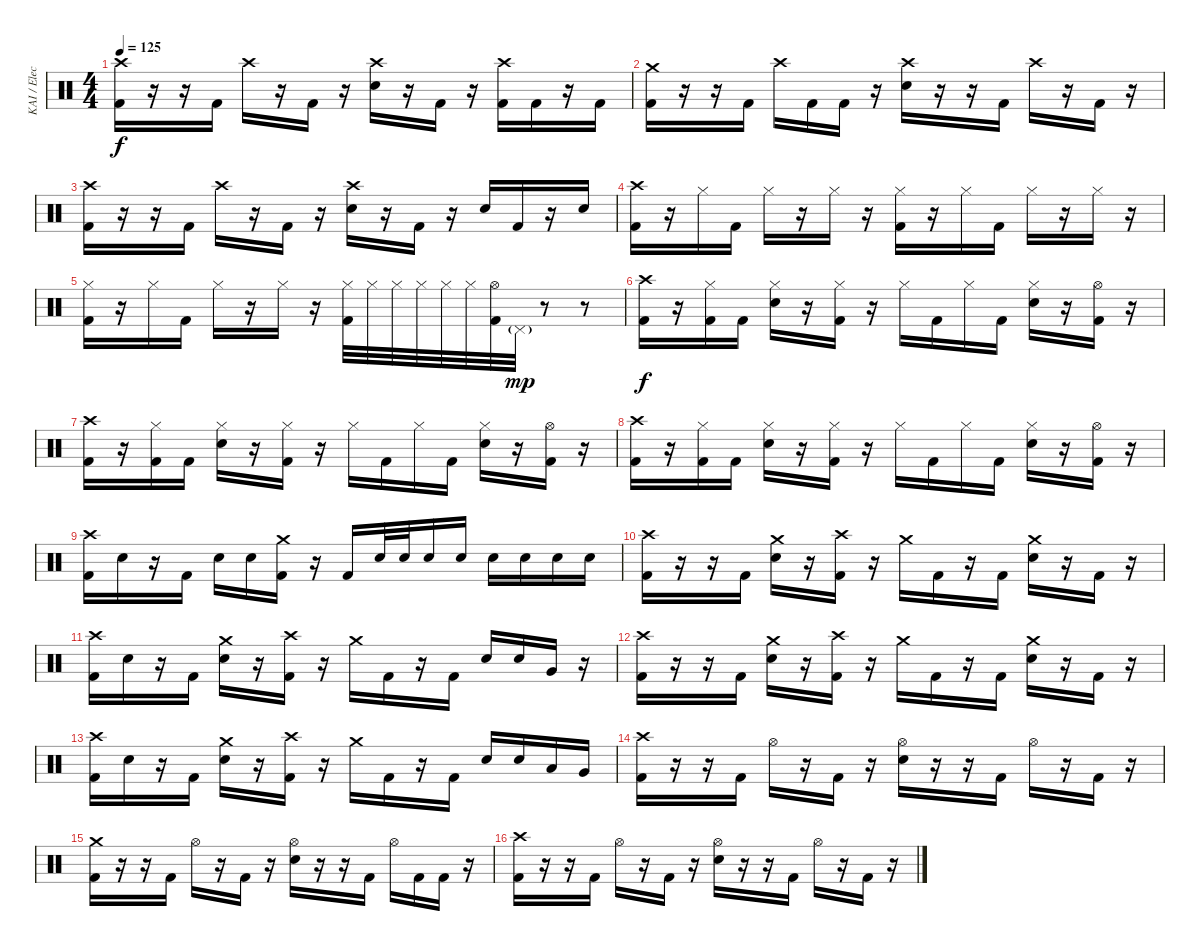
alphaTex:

\track ("KAI / Elect. Drums" "KAI / Elec") {instrument percussion}
\staff {score}
\articulation defaults
\ts (4 4)
\tempo 125
\clef neutral
\ks c
("Crash high (hit)" "Kick (hit) 2").16{dy f} r.16 r.16 "Kick (hit) 2".16 "Crash high (hit)".16 r.16 "Kick (hit) 2".16 r.16 ("Crash high (hit)" "Electric Snare (hit)").16 r.16 "Kick (hit) 2".16 r.16 ("Crash high (hit)" "Kick (hit) 2").16 "Kick (hit) 2".16 r.16 "Kick (hit) 2".16 |
("Crash medium (hit)" "Kick (hit) 2").16 r.16 r.16 "Kick (hit) 2".16 "Crash high (hit)".16 "Kick (hit) 2".16 "Kick (hit) 2".16 r.16 ("Crash high (hit)" "Electric Snare (hit)").16 r.16 r.16 "Kick (hit) 2".16 "Crash high (hit)".16 r.16 "Kick (hit) 2".16 r.16 |
("Crash high (hit)" "Kick (hit) 2").16 r.16 r.16 "Kick (hit) 2".16 "Crash high (hit)".16 r.16 "Kick (hit) 2".16 r.16 ("Crash high (hit)" "Electric Snare (hit)").16 r.16 "Kick (hit) 2".16 r.16 "Electric Snare (hit)".16 "Kick (hit) 2".16 r.16 "Electric Snare (hit)".16 |
("Crash high (hit)" "Kick (hit) 2").16 r.16 "Hi-Hat (closed)".16 "Kick (hit) 2".16 "Hi-Hat (closed)".16 r.16 "Hi-Hat (closed)".16 r.16 ("Hi-Hat (closed)" "Kick (hit) 2").16 r.16 "Hi-Hat (closed)".16 "Kick (hit) 2".16 "Hi-Hat (closed)".16 r.16 "Hi-Hat (closed)".16 r.16 |
("Hi-Hat (closed)" "Kick (hit) 2").16 r.16 "Hi-Hat (closed)".16 "Kick (hit) 2".16 "Hi-Hat (closed)".16 r.16 "Hi-Hat (closed)".16 r.16 ("Hi-Hat (closed)" "Kick (hit) 2").32 "Hi-Hat (closed)".32 "Hi-Hat (closed)".32 "Hi-Hat (closed)".32 "Hi-Hat (closed)".32 "Hi-Hat (closed)".32 ("Hi-Hat (open)" "Kick (hit) 2").32 "Pedal Hi-Hat (hit)"{g}.32{dy mp} r.8 r.8 |
("Crash high (hit)" "Kick (hit) 2").16{dy f} r.16 ("Hi-Hat (closed)" "Kick (hit) 2").16 "Kick (hit) 2".16 ("Hi-Hat (closed)" "Electric Snare (hit)").16 r.16 ("Hi-Hat (closed)" "Kick (hit) 2").16 r.16 "Hi-Hat (closed)".16 "Kick (hit) 2".16 "Hi-Hat (closed)".16 "Kick (hit) 2".16 ("Hi-Hat (closed)" "Electric Snare (hit)").16 r.16 ("Hi-Hat (open)" "Kick (hit) 2").16 r.16 |
("Crash high (hit)" "Kick (hit) 2").16 r.16 ("Hi-Hat (closed)" "Kick (hit) 2").16 "Kick (hit) 2".16 ("Hi-Hat (closed)" "Electric Snare (hit)").16 r.16 ("Hi-Hat (closed)" "Kick (hit) 2").16 r.16 "Hi-Hat (closed)".16 "Kick (hit) 2".16 "Hi-Hat (closed)".16 "Kick (hit) 2".16 ("Hi-Hat (closed)" "Electric Snare (hit)").16 r.16 ("Hi-Hat (open)" "Kick (hit) 2").16 r.16 |
("Crash high (hit)" "Kick (hit) 2").16 r.16 ("Hi-Hat (closed)" "Kick (hit) 2").16 "Kick (hit) 2".16 ("Hi-Hat (closed)" "Electric Snare (hit)").16 r.16 ("Hi-Hat (closed)" "Kick (hit) 2").16 r.16 "Hi-Hat (closed)".16 "Kick (hit) 2".16 "Hi-Hat (closed)".16 "Kick (hit) 2".16 ("Hi-Hat (closed)" "Electric Snare (hit)").16 r.16 ("Hi-Hat (open)" "Kick (hit) 2").16 r.16 |
("Crash high (hit)" "Kick (hit) 2").16 "Electric Snare (hit)".16 r.16 "Kick (hit) 2".16 "Electric Snare (hit)".16 "Electric Snare (hit)".16 ("Crash medium (hit)" "Kick (hit) 2").16 r.16 "Kick (hit) 2".16 "Electric Snare (hit)".32 "Electric Snare (hit)".32 "Electric Snare (hit)".16 "Electric Snare (hit)".16 "Electric Snare (hit)".16 "Electric Snare (hit)".16 "Electric Snare (hit)".16 "Electric Snare (hit)".16 |
("Crash high (hit)" "Kick (hit) 2").16 r.16 r.16 "Kick (hit) 2".16 ("Crash medium (hit)" "Electric Snare (hit)").16 r.16 ("Crash high (hit)" "Kick (hit) 2").16 r.16 "Crash medium (hit)".16 "Kick (hit) 2".16 r.16 "Kick (hit) 2".16 ("Crash medium (hit)" "Electric Snare (hit)").16 r.16 "Kick (hit) 2".16 r.16 |
("Crash high (hit)" "Kick (hit) 2").16 "Electric Snare (hit)".16 r.16 "Kick (hit) 2".16 ("Crash medium (hit)" "Electric Snare (hit)").16 r.16 ("Crash high (hit)" "Kick (hit) 2").16 r.16 "Crash medium (hit)".16 "Kick (hit) 2".16 r.16 "Kick (hit) 2".16 "Electric Snare (hit)".16 "Electric Snare (hit)".16 "Very Low Tom (hit)".16 r.16 |
("Crash high (hit)" "Kick (hit) 2").16 r.16 r.16 "Kick (hit) 2".16 ("Crash medium (hit)" "Electric Snare (hit)").16 r.16 ("Crash high (hit)" "Kick (hit) 2").16 r.16 "Crash medium (hit)".16 "Kick (hit) 2".16 r.16 "Kick (hit) 2".16 ("Crash medium (hit)" "Electric Snare (hit)").16 r.16 "Kick (hit) 2".16 r.16 |
("Crash high (hit)" "Kick (hit) 2").16 "Electric Snare (hit)".16 r.16 "Kick (hit) 2".16 ("Crash medium (hit)" "Electric Snare (hit)").16 r.16 ("Crash high (hit)" "Kick (hit) 2").16 r.16 "Crash medium (hit)".16 "Kick (hit) 2".16 r.16 "Kick (hit) 2".16 "Electric Snare (hit)".16 "Electric Snare (hit)".16 "Low Tom (hit)".16 "Very Low Tom (hit)".16 |
("Crash high (hit)" "Kick (hit) 2").16 r.16 r.16 "Kick (hit) 2".16 "Hi-Hat (open)".16 r.16 "Kick (hit) 2".16 r.16 ("Hi-Hat (open)" "Electric Snare (hit)").16 r.16 r.16 "Kick (hit) 2".16 "Hi-Hat (open)".16 r.16 "Kick (hit) 2".16 r.16 |
("Crash medium (hit)" "Kick (hit) 2").16 r.16 r.16 "Kick (hit) 2".16 "Hi-Hat (open)".16 r.16 "Kick (hit) 2".16 r.16 ("Hi-Hat (open)" "Electric Snare (hit)").16 r.16 r.16 "Kick (hit) 2".16 "Hi-Hat (open)".16 "Kick (hit) 2".16 "Kick (hit) 2".16 r.16 |
("Crash high (hit)" "Kick (hit) 2").16 r.16 r.16 "Kick (hit) 2".16 "Hi-Hat (open)".16 r.16 "Kick (hit) 2".16 r.16 ("Hi-Hat (open)" "Electric Snare (hit)").16 r.16 r.16 "Kick (hit) 2".16 "Hi-Hat (open)".16 r.16 "Kick (hit) 2".16 r.16
